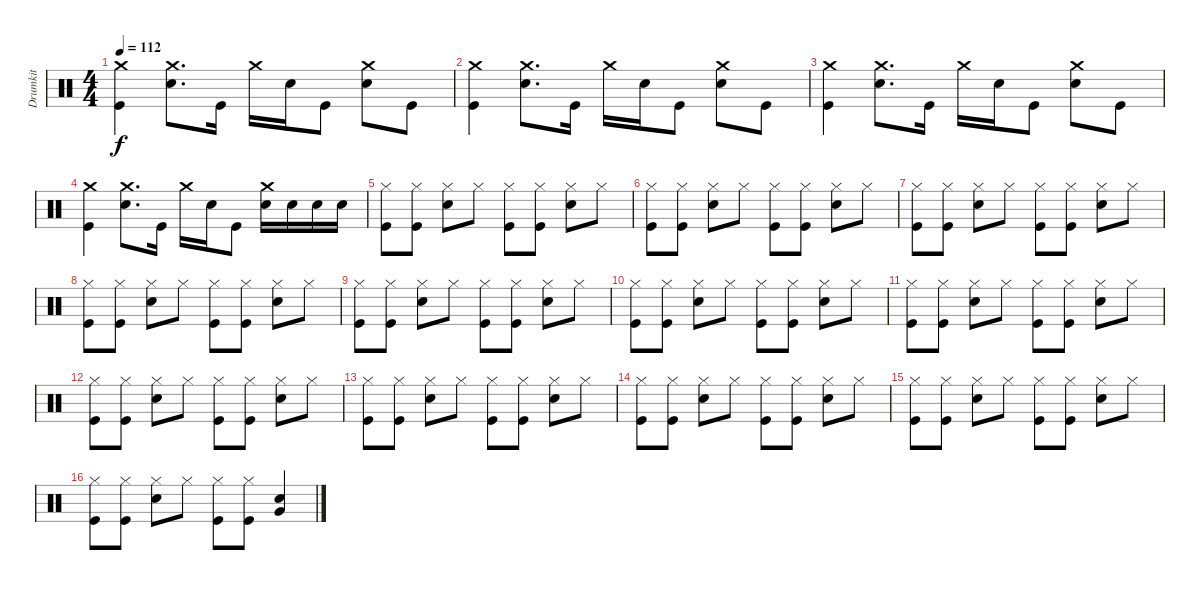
\track ("Drumkit" "Drumkit") {instrument percussion}
\staff {score}
\articulation defaults
\ts (4 4)
\tempo 112
\clef neutral
\ks c
("Crash medium (hit)" "Kick (hit)").4{dy f} ("Crash medium (hit)" "Snare (hit) 2").8{d} "Kick (hit)".16 "Crash medium (hit)".16 "Snare (hit) 2".16 "Kick (hit)".8 ("Crash medium (hit)" "Snare (hit) 2").8 "Kick (hit)".8 |
("Crash medium (hit)" "Kick (hit)").4 ("Crash medium (hit)" "Snare (hit) 2").8{d} "Kick (hit)".16 "Crash medium (hit)".16 "Snare (hit) 2".16 "Kick (hit)".8 ("Crash medium (hit)" "Snare (hit) 2").8 "Kick (hit)".8 |
("Crash medium (hit)" "Kick (hit)").4 ("Crash medium (hit)" "Snare (hit) 2").8{d} "Kick (hit)".16 "Crash medium (hit)".16 "Snare (hit) 2".16 "Kick (hit)".8 ("Crash medium (hit)" "Snare (hit) 2").8 "Kick (hit)".8 |
("Crash medium (hit)" "Kick (hit)").4 ("Crash medium (hit)" "Snare (hit) 2").8{d} "Kick (hit)".16 "Crash medium (hit)".16 "Snare (hit) 2".16 "Kick (hit)".8 ("Crash medium (hit)" "Snare (hit) 2").16 "Snare (hit) 2".16 "Snare (hit) 2".16 "Snare (hit) 2".16 |
("Hi-Hat (closed)" "Kick (hit)").8 ("Hi-Hat (closed)" "Kick (hit)").8 ("Hi-Hat (closed)" "Snare (hit) 2").8 "Hi-Hat (closed)".8 ("Hi-Hat (closed)" "Kick (hit)").8 ("Hi-Hat (closed)" "Kick (hit)").8 ("Hi-Hat (closed)" "Snare (hit) 2").8 "Hi-Hat (closed)".8 |
("Hi-Hat (closed)" "Kick (hit)").8 ("Hi-Hat (closed)" "Kick (hit)").8 ("Hi-Hat (closed)" "Snare (hit) 2").8 "Hi-Hat (closed)".8 ("Hi-Hat (closed)" "Kick (hit)").8 ("Hi-Hat (closed)" "Kick (hit)").8 ("Hi-Hat (closed)" "Snare (hit) 2").8 "Hi-Hat (closed)".8 |
("Hi-Hat (closed)" "Kick (hit)").8 ("Hi-Hat (closed)" "Kick (hit)").8 ("Hi-Hat (closed)" "Snare (hit) 2").8 "Hi-Hat (closed)".8 ("Hi-Hat (closed)" "Kick (hit)").8 ("Hi-Hat (closed)" "Kick (hit)").8 ("Hi-Hat (closed)" "Snare (hit) 2").8 "Hi-Hat (closed)".8 |
("Hi-Hat (closed)" "Kick (hit)").8 ("Hi-Hat (closed)" "Kick (hit)").8 ("Hi-Hat (closed)" "Snare (hit) 2").8 "Hi-Hat (closed)".8 ("Hi-Hat (closed)" "Kick (hit)").8 ("Hi-Hat (closed)" "Kick (hit)").8 ("Hi-Hat (closed)" "Snare (hit) 2").8 "Hi-Hat (closed)".8 |
("Hi-Hat (closed)" "Kick (hit)").8 ("Hi-Hat (closed)" "Kick (hit)").8 ("Hi-Hat (closed)" "Snare (hit) 2").8 "Hi-Hat (closed)".8 ("Hi-Hat (closed)" "Kick (hit)").8 ("Hi-Hat (closed)" "Kick (hit)").8 ("Hi-Hat (closed)" "Snare (hit) 2").8 "Hi-Hat (closed)".8 |
("Hi-Hat (closed)" "Kick (hit)").8 ("Hi-Hat (closed)" "Kick (hit)").8 ("Hi-Hat (closed)" "Snare (hit) 2").8 "Hi-Hat (closed)".8 ("Hi-Hat (closed)" "Kick (hit)").8 ("Hi-Hat (closed)" "Kick (hit)").8 ("Hi-Hat (closed)" "Snare (hit) 2").8 "Hi-Hat (closed)".8 |
("Hi-Hat (closed)" "Kick (hit)").8 ("Hi-Hat (closed)" "Kick (hit)").8 ("Hi-Hat (closed)" "Snare (hit) 2").8 "Hi-Hat (closed)".8 ("Hi-Hat (closed)" "Kick (hit)").8 ("Hi-Hat (closed)" "Kick (hit)").8 ("Hi-Hat (closed)" "Snare (hit) 2").8 "Hi-Hat (closed)".8 |
("Hi-Hat (closed)" "Kick (hit)").8 ("Hi-Hat (closed)" "Kick (hit)").8 ("Hi-Hat (closed)" "Snare (hit) 2").8 "Hi-Hat (closed)".8 ("Hi-Hat (closed)" "Kick (hit)").8 ("Hi-Hat (closed)" "Kick (hit)").8 ("Hi-Hat (closed)" "Snare (hit) 2").8 "Hi-Hat (closed)".8 |
("Hi-Hat (closed)" "Kick (hit)").8 ("Hi-Hat (closed)" "Kick (hit)").8 ("Hi-Hat (closed)" "Snare (hit) 2").8 "Hi-Hat (closed)".8 ("Hi-Hat (closed)" "Kick (hit)").8 ("Hi-Hat (closed)" "Kick (hit)").8 ("Hi-Hat (closed)" "Snare (hit) 2").8 "Hi-Hat (closed)".8 |
("Hi-Hat (closed)" "Kick (hit)").8 ("Hi-Hat (closed)" "Kick (hit)").8 ("Hi-Hat (closed)" "Snare (hit) 2").8 "Hi-Hat (closed)".8 ("Hi-Hat (closed)" "Kick (hit)").8 ("Hi-Hat (closed)" "Kick (hit)").8 ("Hi-Hat (closed)" "Snare (hit) 2").8 "Hi-Hat (closed)".8 |
("Hi-Hat (closed)" "Kick (hit)").8 ("Hi-Hat (closed)" "Kick (hit)").8 ("Hi-Hat (closed)" "Snare (hit) 2").8 "Hi-Hat (closed)".8 ("Hi-Hat (closed)" "Kick (hit)").8 ("Hi-Hat (closed)" "Kick (hit)").8 ("Hi-Hat (closed)" "Snare (hit) 2").8 "Hi-Hat (closed)".8 |
("Hi-Hat (closed)" "Kick (hit)").8 ("Hi-Hat (closed)" "Kick (hit)").8 ("Hi-Hat (closed)" "Snare (hit) 2").8 "Hi-Hat (closed)".8 ("Hi-Hat (closed)" "Kick (hit)").8 ("Hi-Hat (closed)" "Kick (hit)").8 ("Very Low Tom (hit)" "Snare (hit) 2").4
